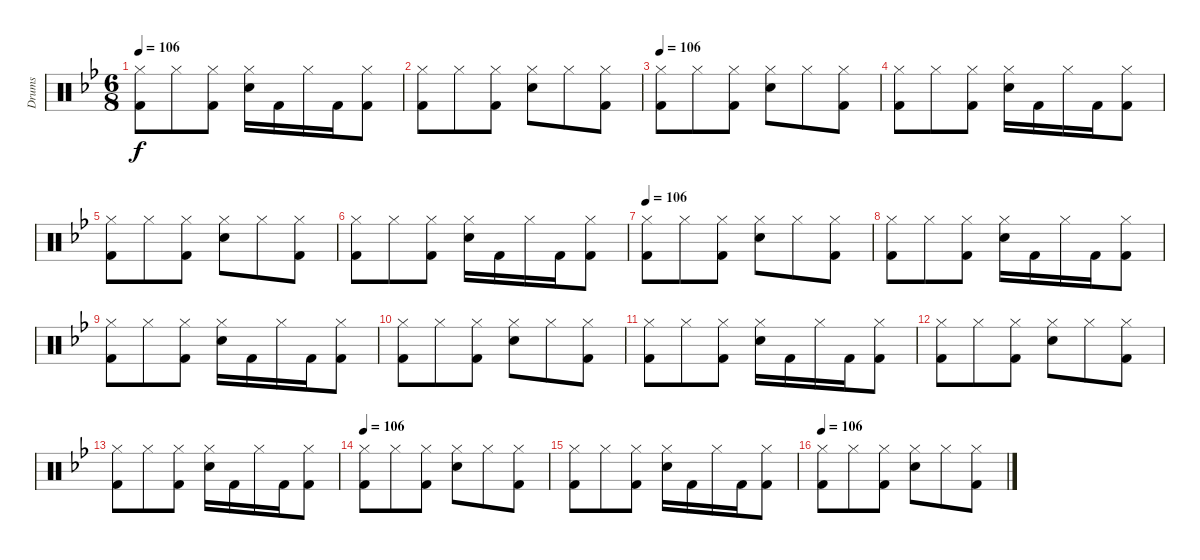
\track ("Drums" "Drums") {instrument percussion}
\staff {score}
\articulation defaults
\ts (6 8)
\tempo 106
\clef neutral
\ks bb
("Hi-Hat (closed)" "Kick (hit) 2").8{dy f} "Hi-Hat (closed)".8 ("Hi-Hat (closed)" "Kick (hit) 2").8 ("Hi-Hat (closed)" "Snare (hit) 2").16 "Kick (hit) 2".16 "Hi-Hat (closed)".16 "Kick (hit) 2".16 ("Hi-Hat (closed)" "Kick (hit) 2").8 |
("Hi-Hat (closed)" "Kick (hit) 2").8 "Hi-Hat (closed)".8 ("Hi-Hat (closed)" "Kick (hit) 2").8 ("Hi-Hat (closed)" "Snare (hit) 2").8 "Hi-Hat (closed)".8 ("Hi-Hat (closed)" "Kick (hit) 2").8 |
\tempo 106
("Hi-Hat (closed)" "Kick (hit) 2").8 "Hi-Hat (closed)".8 ("Hi-Hat (closed)" "Kick (hit) 2").8 ("Hi-Hat (closed)" "Snare (hit) 2").8 "Hi-Hat (closed)".8 ("Hi-Hat (closed)" "Kick (hit) 2").8 |
("Hi-Hat (closed)" "Kick (hit) 2").8 "Hi-Hat (closed)".8 ("Hi-Hat (closed)" "Kick (hit) 2").8 ("Hi-Hat (closed)" "Snare (hit) 2").16 "Kick (hit) 2".16 "Hi-Hat (closed)".16 "Kick (hit) 2".16 ("Hi-Hat (closed)" "Kick (hit) 2").8 |
("Hi-Hat (closed)" "Kick (hit) 2").8 "Hi-Hat (closed)".8 ("Hi-Hat (closed)" "Kick (hit) 2").8 ("Hi-Hat (closed)" "Snare (hit) 2").8 "Hi-Hat (closed)".8 ("Hi-Hat (closed)" "Kick (hit) 2").8 |
("Hi-Hat (closed)" "Kick (hit) 2").8 "Hi-Hat (closed)".8 ("Hi-Hat (closed)" "Kick (hit) 2").8 ("Hi-Hat (closed)" "Snare (hit) 2").16 "Kick (hit) 2".16 "Hi-Hat (closed)".16 "Kick (hit) 2".16 ("Hi-Hat (closed)" "Kick (hit) 2").8 |
\tempo 106
("Hi-Hat (closed)" "Kick (hit) 2").8 "Hi-Hat (closed)".8 ("Hi-Hat (closed)" "Kick (hit) 2").8 ("Hi-Hat (closed)" "Snare (hit) 2").8 "Hi-Hat (closed)".8 ("Hi-Hat (closed)" "Kick (hit) 2").8 |
("Hi-Hat (closed)" "Kick (hit) 2").8 "Hi-Hat (closed)".8 ("Hi-Hat (closed)" "Kick (hit) 2").8 ("Hi-Hat (closed)" "Snare (hit) 2").16 "Kick (hit) 2".16 "Hi-Hat (closed)".16 "Kick (hit) 2".16 ("Hi-Hat (closed)" "Kick (hit) 2").8 |
("Hi-Hat (closed)" "Kick (hit) 2").8 "Hi-Hat (closed)".8 ("Hi-Hat (closed)" "Kick (hit) 2").8 ("Hi-Hat (closed)" "Snare (hit) 2").16 "Kick (hit) 2".16 "Hi-Hat (closed)".16 "Kick (hit) 2".16 ("Hi-Hat (closed)" "Kick (hit) 2").8 |
("Hi-Hat (closed)" "Kick (hit) 2").8 "Hi-Hat (closed)".8 ("Hi-Hat (closed)" "Kick (hit) 2").8 ("Hi-Hat (closed)" "Snare (hit) 2").8 "Hi-Hat (closed)".8 ("Hi-Hat (closed)" "Kick (hit) 2").8 |
("Hi-Hat (closed)" "Kick (hit) 2").8 "Hi-Hat (closed)".8 ("Hi-Hat (closed)" "Kick (hit) 2").8 ("Hi-Hat (closed)" "Snare (hit) 2").16 "Kick (hit) 2".16 "Hi-Hat (closed)".16 "Kick (hit) 2".16 ("Hi-Hat (closed)" "Kick (hit) 2").8 |
("Hi-Hat (closed)" "Kick (hit) 2").8 "Hi-Hat (closed)".8 ("Hi-Hat (closed)" "Kick (hit) 2").8 ("Hi-Hat (closed)" "Snare (hit) 2").8 "Hi-Hat (closed)".8 ("Hi-Hat (closed)" "Kick (hit) 2").8 |
("Hi-Hat (closed)" "Kick (hit) 2").8 "Hi-Hat (closed)".8 ("Hi-Hat (closed)" "Kick (hit) 2").8 ("Hi-Hat (closed)" "Snare (hit) 2").16 "Kick (hit) 2".16 "Hi-Hat (closed)".16 "Kick (hit) 2".16 ("Hi-Hat (closed)" "Kick (hit) 2").8 |
\tempo 106
("Hi-Hat (closed)" "Kick (hit) 2").8 "Hi-Hat (closed)".8 ("Hi-Hat (closed)" "Kick (hit) 2").8 ("Hi-Hat (closed)" "Snare (hit) 2").8 "Hi-Hat (closed)".8 ("Hi-Hat (closed)" "Kick (hit) 2").8 |
("Hi-Hat (closed)" "Kick (hit) 2").8 "Hi-Hat (closed)".8 ("Hi-Hat (closed)" "Kick (hit) 2").8 ("Hi-Hat (closed)" "Snare (hit) 2").16 "Kick (hit) 2".16 "Hi-Hat (closed)".16 "Kick (hit) 2".16 ("Hi-Hat (closed)" "Kick (hit) 2").8 |
\tempo 106
("Hi-Hat (closed)" "Kick (hit) 2").8 "Hi-Hat (closed)".8 ("Hi-Hat (closed)" "Kick (hit) 2").8 ("Hi-Hat (closed)" "Snare (hit) 2").8 "Hi-Hat (closed)".8 ("Hi-Hat (closed)" "Kick (hit) 2").8
